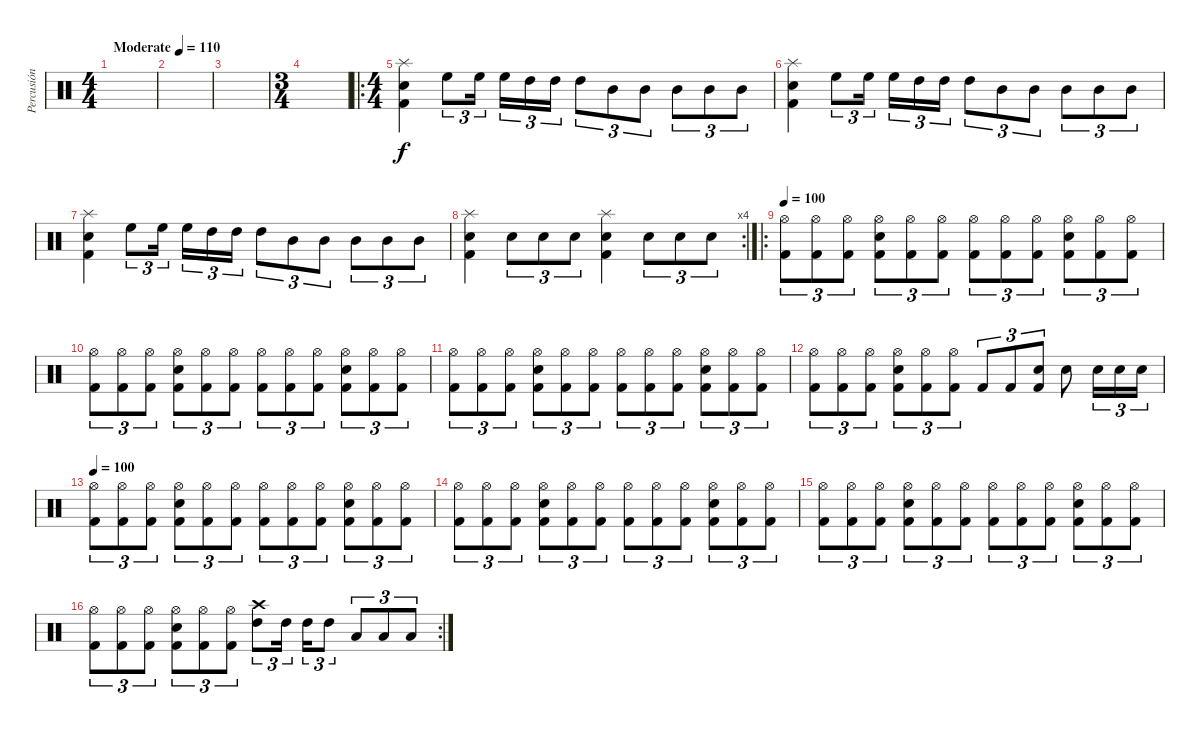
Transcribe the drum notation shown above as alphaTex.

\track ("Percusión" "Percusión") {instrument percussion}
\staff {score}
\articulation defaults
\ts (4 4)
\tempo (110 "Moderate")
\clef neutral
\ks c
|
|
|
\ts (3 4)
|
\ro
\ts (4 4)
("Splash (hit)" "Snare (hit) 2" "Kick (hit) 2").4 "High Floor Tom (hit)".8{tu (3 2)} "High Floor Tom (hit)".16{tu (3 2) beam splitsecondary} "High Floor Tom (hit)".16{tu (3 2)} "High Tom (hit)".16{tu (3 2)} "High Tom (hit)".16{tu (3 2)} "High Tom (hit)".8{tu (3 2)} "Mid Tom (hit)".8{tu (3 2)} "Mid Tom (hit)".8{tu (3 2)} "Mid Tom (hit)".8{tu (3 2)} "Mid Tom (hit)".8{tu (3 2)} "Mid Tom (hit)".8{tu (3 2)} |
("Splash (hit)" "Snare (hit) 2" "Kick (hit) 2").4 "High Floor Tom (hit)".8{tu (3 2)} "High Floor Tom (hit)".16{tu (3 2) beam splitsecondary} "High Floor Tom (hit)".16{tu (3 2)} "High Tom (hit)".16{tu (3 2)} "High Tom (hit)".16{tu (3 2)} "High Tom (hit)".8{tu (3 2)} "Mid Tom (hit)".8{tu (3 2)} "Mid Tom (hit)".8{tu (3 2)} "Mid Tom (hit)".8{tu (3 2)} "Mid Tom (hit)".8{tu (3 2)} "Mid Tom (hit)".8{tu (3 2)} |
("Splash (hit)" "Snare (hit) 2" "Kick (hit) 2").4 "High Floor Tom (hit)".8{tu (3 2)} "High Floor Tom (hit)".16{tu (3 2) beam splitsecondary} "High Floor Tom (hit)".16{tu (3 2)} "High Tom (hit)".16{tu (3 2)} "High Tom (hit)".16{tu (3 2)} "High Tom (hit)".8{tu (3 2)} "Mid Tom (hit)".8{tu (3 2)} "Mid Tom (hit)".8{tu (3 2)} "Mid Tom (hit)".8{tu (3 2)} "Mid Tom (hit)".8{tu (3 2)} "Mid Tom (hit)".8{tu (3 2)} |
\rc 4
("Splash (hit)" "Snare (hit) 2" "Kick (hit) 2").4 "Snare (hit) 2".8{tu (3 2)} "Snare (hit) 2".8{tu (3 2)} "Snare (hit) 2".8{tu (3 2)} ("Splash (hit)" "Snare (hit) 2" "Kick (hit) 2").4 "Snare (hit) 2".8{tu (3 2)} "Snare (hit) 2".8{tu (3 2)} "Snare (hit) 2".8{tu (3 2)} |
\ro
\tempo 100
("Hi-Hat (open)" "Kick (hit) 2").8{tu (3 2)} ("Hi-Hat (open)" "Kick (hit) 2").8{tu (3 2)} ("Hi-Hat (open)" "Kick (hit) 2").8{tu (3 2)} ("Hi-Hat (open)" "Snare (hit) 2" "Kick (hit) 2").8{tu (3 2)} ("Hi-Hat (open)" "Kick (hit) 2").8{tu (3 2)} ("Hi-Hat (open)" "Kick (hit) 2").8{tu (3 2)} ("Hi-Hat (open)" "Kick (hit) 2").8{tu (3 2)} ("Hi-Hat (open)" "Kick (hit) 2").8{tu (3 2)} ("Hi-Hat (open)" "Kick (hit) 2").8{tu (3 2)} ("Hi-Hat (open)" "Snare (hit) 2" "Kick (hit) 2").8{tu (3 2)} ("Hi-Hat (open)" "Kick (hit) 2").8{tu (3 2)} ("Hi-Hat (open)" "Kick (hit) 2").8{tu (3 2)} |
("Hi-Hat (open)" "Kick (hit) 2").8{tu (3 2)} ("Hi-Hat (open)" "Kick (hit) 2").8{tu (3 2)} ("Hi-Hat (open)" "Kick (hit) 2").8{tu (3 2)} ("Hi-Hat (open)" "Snare (hit) 2" "Kick (hit) 2").8{tu (3 2)} ("Hi-Hat (open)" "Kick (hit) 2").8{tu (3 2)} ("Hi-Hat (open)" "Kick (hit) 2").8{tu (3 2)} ("Hi-Hat (open)" "Kick (hit) 2").8{tu (3 2)} ("Hi-Hat (open)" "Kick (hit) 2").8{tu (3 2)} ("Hi-Hat (open)" "Kick (hit) 2").8{tu (3 2)} ("Hi-Hat (open)" "Snare (hit) 2" "Kick (hit) 2").8{tu (3 2)} ("Hi-Hat (open)" "Kick (hit) 2").8{tu (3 2)} ("Hi-Hat (open)" "Kick (hit) 2").8{tu (3 2)} |
("Hi-Hat (open)" "Kick (hit) 2").8{tu (3 2)} ("Hi-Hat (open)" "Kick (hit) 2").8{tu (3 2)} ("Hi-Hat (open)" "Kick (hit) 2").8{tu (3 2)} ("Hi-Hat (open)" "Snare (hit) 2" "Kick (hit) 2").8{tu (3 2)} ("Hi-Hat (open)" "Kick (hit) 2").8{tu (3 2)} ("Hi-Hat (open)" "Kick (hit) 2").8{tu (3 2)} ("Hi-Hat (open)" "Kick (hit) 2").8{tu (3 2)} ("Hi-Hat (open)" "Kick (hit) 2").8{tu (3 2)} ("Hi-Hat (open)" "Kick (hit) 2").8{tu (3 2)} ("Hi-Hat (open)" "Snare (hit) 2" "Kick (hit) 2").8{tu (3 2)} ("Hi-Hat (open)" "Kick (hit) 2").8{tu (3 2)} ("Hi-Hat (open)" "Kick (hit) 2").8{tu (3 2)} |
("Hi-Hat (open)" "Kick (hit) 2").8{tu (3 2)} ("Hi-Hat (open)" "Kick (hit) 2").8{tu (3 2)} ("Hi-Hat (open)" "Kick (hit) 2").8{tu (3 2)} ("Hi-Hat (open)" "Snare (hit) 2" "Kick (hit) 2").8{tu (3 2)} ("Hi-Hat (open)" "Kick (hit) 2").8{tu (3 2)} ("Hi-Hat (open)" "Kick (hit) 2").8{tu (3 2)} "Kick (hit) 2".8{tu (3 2)} "Kick (hit) 2".8{tu (3 2)} ("Snare (hit) 2" "Kick (hit) 2").8{tu (3 2)} "Snare (hit) 2".8 "Snare (hit) 2".16{tu (3 2)} "Snare (hit) 2".16{tu (3 2)} "Snare (hit) 2".16{tu (3 2)} |
\tempo 100
("Hi-Hat (open)" "Kick (hit) 2").8{tu (3 2)} ("Hi-Hat (open)" "Kick (hit) 2").8{tu (3 2)} ("Hi-Hat (open)" "Kick (hit) 2").8{tu (3 2)} ("Hi-Hat (open)" "Snare (hit) 2" "Kick (hit) 2").8{tu (3 2)} ("Hi-Hat (open)" "Kick (hit) 2").8{tu (3 2)} ("Hi-Hat (open)" "Kick (hit) 2").8{tu (3 2)} ("Hi-Hat (open)" "Kick (hit) 2").8{tu (3 2)} ("Hi-Hat (open)" "Kick (hit) 2").8{tu (3 2)} ("Hi-Hat (open)" "Kick (hit) 2").8{tu (3 2)} ("Hi-Hat (open)" "Snare (hit) 2" "Kick (hit) 2").8{tu (3 2)} ("Hi-Hat (open)" "Kick (hit) 2").8{tu (3 2)} ("Hi-Hat (open)" "Kick (hit) 2").8{tu (3 2)} |
("Hi-Hat (open)" "Kick (hit) 2").8{tu (3 2)} ("Hi-Hat (open)" "Kick (hit) 2").8{tu (3 2)} ("Hi-Hat (open)" "Kick (hit) 2").8{tu (3 2)} ("Hi-Hat (open)" "Snare (hit) 2" "Kick (hit) 2").8{tu (3 2)} ("Hi-Hat (open)" "Kick (hit) 2").8{tu (3 2)} ("Hi-Hat (open)" "Kick (hit) 2").8{tu (3 2)} ("Hi-Hat (open)" "Kick (hit) 2").8{tu (3 2)} ("Hi-Hat (open)" "Kick (hit) 2").8{tu (3 2)} ("Hi-Hat (open)" "Kick (hit) 2").8{tu (3 2)} ("Hi-Hat (open)" "Snare (hit) 2" "Kick (hit) 2").8{tu (3 2)} ("Hi-Hat (open)" "Kick (hit) 2").8{tu (3 2)} ("Hi-Hat (open)" "Kick (hit) 2").8{tu (3 2)} |
("Hi-Hat (open)" "Kick (hit) 2").8{tu (3 2)} ("Hi-Hat (open)" "Kick (hit) 2").8{tu (3 2)} ("Hi-Hat (open)" "Kick (hit) 2").8{tu (3 2)} ("Hi-Hat (open)" "Snare (hit) 2" "Kick (hit) 2").8{tu (3 2)} ("Hi-Hat (open)" "Kick (hit) 2").8{tu (3 2)} ("Hi-Hat (open)" "Kick (hit) 2").8{tu (3 2)} ("Hi-Hat (open)" "Kick (hit) 2").8{tu (3 2)} ("Hi-Hat (open)" "Kick (hit) 2").8{tu (3 2)} ("Hi-Hat (open)" "Kick (hit) 2").8{tu (3 2)} ("Hi-Hat (open)" "Snare (hit) 2" "Kick (hit) 2").8{tu (3 2)} ("Hi-Hat (open)" "Kick (hit) 2").8{tu (3 2)} ("Hi-Hat (open)" "Kick (hit) 2").8{tu (3 2)} |
\rc 2
("Hi-Hat (open)" "Kick (hit) 2").8{tu (3 2)} ("Hi-Hat (open)" "Kick (hit) 2").8{tu (3 2)} ("Hi-Hat (open)" "Kick (hit) 2").8{tu (3 2)} ("Hi-Hat (open)" "Snare (hit) 2" "Kick (hit) 2").8{tu (3 2)} ("Hi-Hat (open)" "Kick (hit) 2").8{tu (3 2)} ("Hi-Hat (open)" "Kick (hit) 2").8{tu (3 2)} ("Crash high (hit)" "High Tom (hit)").8{tu (3 2)} "High Tom (hit)".16{tu (3 2) beam splitsecondary} "High Tom (hit)".16{tu (3 2)} "High Tom (hit)".8{tu (3 2)} "Low Tom (hit)".8{tu (3 2)} "Low Tom (hit)".8{tu (3 2)} "Low Floor Tom (hit)".8{tu (3 2)}
